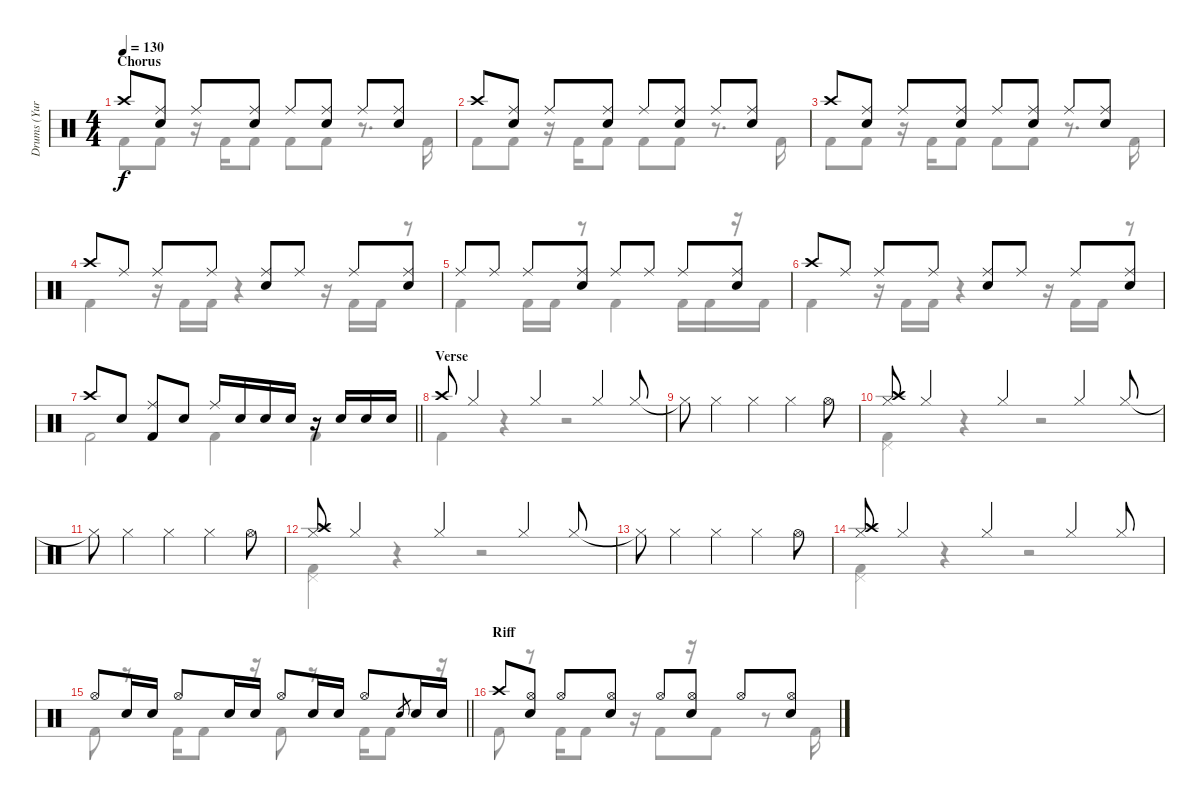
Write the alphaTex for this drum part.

\track ("Drums (Yuri)" "Drums (Yur") {instrument percussion}
\staff {score}
\articulation defaults
\voice
\ts (4 4)
\section ("" "Chorus")
\tempo 130
\clef neutral
\ks c "Crash high (hit)".8{dy f}
("Ride (middle)" "Electric Snare (hit)").8 "Ride (middle)".8 ("Ride (middle)" "Electric Snare (hit)").8 "Ride (middle)".8 ("Ride (middle)" "Electric Snare (hit)").8 "Ride (middle)".8 ("Ride (middle)" "Electric Snare (hit)").8 |
"Crash high (hit)".8 ("Ride (middle)" "Electric Snare (hit)").8 "Ride (middle)".8 ("Ride (middle)" "Electric Snare (hit)").8 "Ride (middle)".8 ("Ride (middle)" "Electric Snare (hit)").8 "Ride (middle)".8 ("Ride (middle)" "Electric Snare (hit)").8 |
"Crash high (hit)".8 ("Ride (middle)" "Electric Snare (hit)").8 "Ride (middle)".8 ("Ride (middle)" "Electric Snare (hit)").8 "Ride (middle)".8 ("Ride (middle)" "Electric Snare (hit)").8 "Ride (middle)".8 ("Ride (middle)" "Electric Snare (hit)").8 |
"Crash high (hit)".8 "Ride (middle)".8 "Ride (middle)".8 "Ride (middle)".8 ("Ride (middle)" "Electric Snare (hit)").8 "Ride (middle)".8 "Ride (middle)".8 ("Ride (middle)" "Electric Snare (hit)").8 |
"Ride (middle)".8 "Ride (middle)".8 "Ride (middle)".8 ("Ride (middle)" "Electric Snare (hit)").8 "Ride (middle)".8 "Ride (middle)".8 "Ride (middle)".8 ("Ride (middle)" "Electric Snare (hit)").8 |
"Crash high (hit)".8 "Ride (middle)".8 "Ride (middle)".8 "Ride (middle)".8 ("Ride (middle)" "Electric Snare (hit)").8 "Ride (middle)".8 "Ride (middle)".8 ("Ride (middle)" "Electric Snare (hit)").8 |
\barLineRight lightlight "Crash high (hit)".8 "Electric Snare (hit)".8
("Ride (middle)" "Kick (hit) 2").8 "Electric Snare (hit)".8 "Ride (middle)".16 "Electric Snare (hit)".16 "Electric Snare (hit)".16 "Electric Snare (hit)".16 r.16 "Electric Snare (hit)".16 "Electric Snare (hit)".16 "Electric Snare (hit)".16 |
\section ("" "Verse")
"Crash high (hit)".8 "Hi-Hat (closed)".4 "Hi-Hat (closed)".4 "Hi-Hat (closed)".4 "Hi-Hat (closed)".8 |
"Hi-Hat (closed)"{t}.8 "Hi-Hat (closed)".4 "Hi-Hat (closed)".4 "Hi-Hat (closed)".4 "Hi-Hat (open)".8 |
("Crash high (hit)" "Hi-Hat (closed)").8 "Hi-Hat (closed)".4 "Hi-Hat (closed)".4 "Hi-Hat (closed)".4 "Hi-Hat (closed)".8 |
"Hi-Hat (closed)"{t}.8 "Hi-Hat (closed)".4 "Hi-Hat (closed)".4 "Hi-Hat (closed)".4 "Hi-Hat (open)".8 |
("Crash high (hit)" "Hi-Hat (closed)").8 "Hi-Hat (closed)".4 "Hi-Hat (closed)".4 "Hi-Hat (closed)".4 "Hi-Hat (closed)".8 |
"Hi-Hat (closed)"{t}.8 "Hi-Hat (closed)".4 "Hi-Hat (closed)".4 "Hi-Hat (closed)".4 "Hi-Hat (open)".8 |
("Crash high (hit)" "Hi-Hat (closed)").8 "Hi-Hat (closed)".4 "Hi-Hat (closed)".4 "Hi-Hat (closed)".4 "Hi-Hat (closed)".8 |
\barLineRight lightlight "Hi-Hat (open)".8 "Electric Snare (hit)".16 "Electric Snare (hit)".16 "Hi-Hat (open)".8 "Electric Snare (hit)".16 "Electric Snare (hit)".16 "Hi-Hat (open)".8 "Electric Snare (hit)".16 "Electric Snare (hit)".16 "Hi-Hat (open)".8 "Electric Snare (hit)".8{gr} "Electric Snare (hit)".16 "Electric Snare (hit)".16
|
\section ("" "Riff")
"Crash high (hit)".8 ("Electric Snare (hit)" "Hi-Hat (open)").8 "Hi-Hat (open)".8 ("Electric Snare (hit)" "Hi-Hat (open)").8 "Hi-Hat (open)".8 ("Electric Snare (hit)" "Hi-Hat (open)").8 "Hi-Hat (open)".8 ("Electric Snare (hit)" "Hi-Hat (open)").8
\voice
\clef neutral
\ottava regular
\simile none
\ks c "Kick (hit) 2".8{dy f} "Kick (hit) 2".8
r.16 "Kick (hit) 2".16 "Kick (hit) 2".8 "Kick (hit) 2".8 "Kick (hit) 2".8 r.8{d} "Kick (hit) 2".16 |
"Kick (hit) 2".8 "Kick (hit) 2".8 r.16 "Kick (hit) 2".16 "Kick (hit) 2".8 "Kick (hit) 2".8 "Kick (hit) 2".8 r.8{d} "Kick (hit) 2".16 |
"Kick (hit) 2".8 "Kick (hit) 2".8 r.16 "Kick (hit) 2".16 "Kick (hit) 2".8 "Kick (hit) 2".8 "Kick (hit) 2".8 r.8{d} "Kick (hit) 2".16 |
"Kick (hit) 2".4 r.16 "Kick (hit) 2".16 "Kick (hit) 2".16 r.4 r.16 "Kick (hit) 2".16 "Kick (hit) 2".16 r.8 |
"Kick (hit) 2".4 "Kick (hit) 2".16 "Kick (hit) 2".16 r.8 "Kick (hit) 2".4 "Kick (hit) 2".16 "Kick (hit) 2".16 r.16 "Kick (hit) 2".16 |
"Kick (hit) 2".4 r.16 "Kick (hit) 2".16 "Kick (hit) 2".16 r.4 r.16 "Kick (hit) 2".16 "Kick (hit) 2".16 r.8 |
\barLineRight lightlight "Kick (hit) 2".2 "Kick (hit) 2".4 "Kick (hit) 2".4
|
"Kick (hit) 2".4 r.4 r.2 |
|
("Pedal Hi-Hat (hit)" "Kick (hit) 2").4 r.4 r.2 |
|
("Pedal Hi-Hat (hit)" "Kick (hit) 2").4 r.4 r.2 |
|
("Pedal Hi-Hat (hit)" "Kick (hit) 2").4 r.4 r.2 |
\barLineRight lightlight "Kick (hit) 2".8
r.8 "Kick (hit) 2".16 "Kick (hit) 2".8 r.16 "Kick (hit) 2".8 r.8 "Kick (hit) 2".16 "Kick (hit) 2".8 r.16 |
"Kick (hit) 2".8 r.8 "Kick (hit) 2".16 "Kick (hit) 2".8 r.16 "Kick (hit) 2".8 r.16 "Kick (hit) 2".8 r.8 "Kick (hit) 2".16
